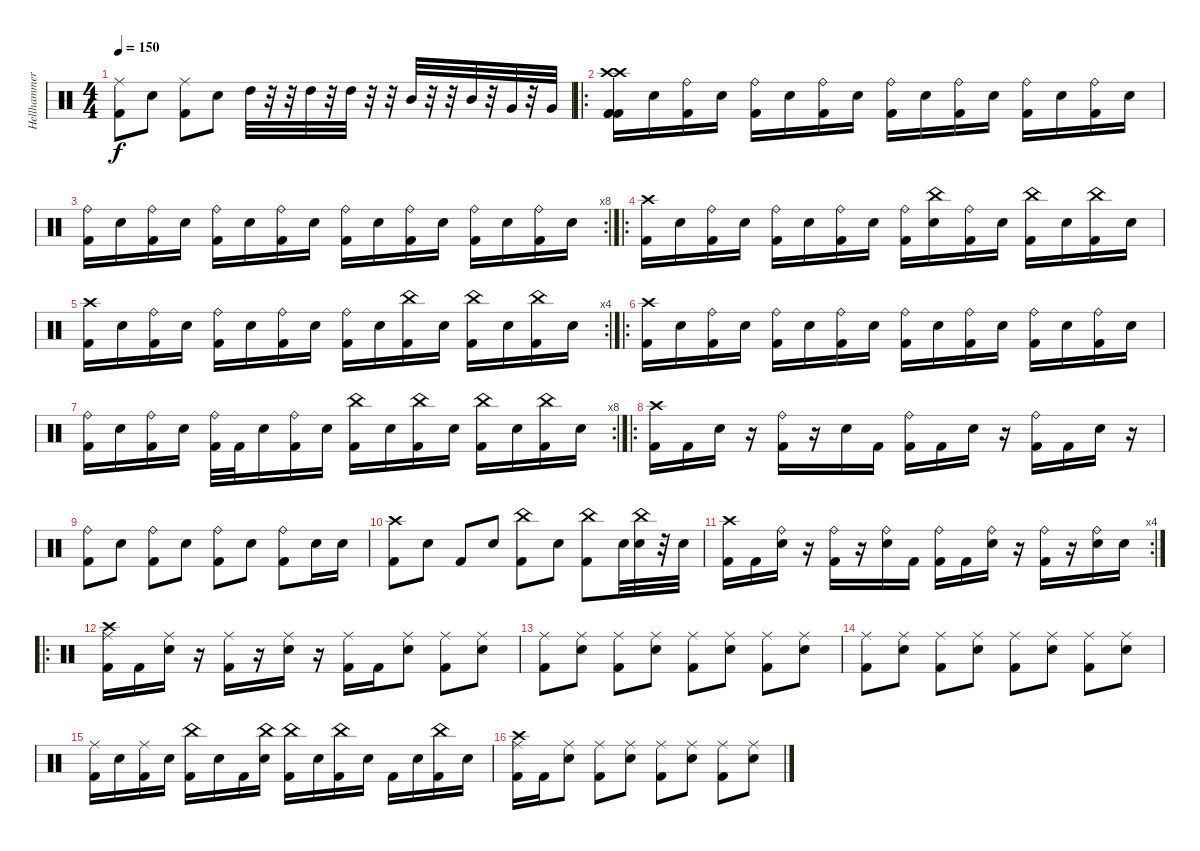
\track ("Hellhammer" "Hellhammer") {instrument percussion}
\staff {score}
\articulation defaults
\ts (4 4)
\tempo 150
\clef neutral
\ks c
("Ride (middle)" "Kick (hit) 2").8{dy f} "Electric Snare (hit)".8 ("Ride (middle)" "Kick (hit) 2").8 "Electric Snare (hit)".8 "High Tom (hit)".32 r.32 r.32 "High Tom (hit)".32 r.32 "High Tom (hit)".32 r.32 r.32 "Mid Tom (hit)".32 r.32 r.32 "Mid Tom (hit)".32 r.32 "Very Low Tom (hit)".32 r.32 "Very Low Tom (hit)".32 |
\ro
("Crash high (hit)" "Crash high (hit)" "Kick (hit) 2" "Kick (hit) 2" "Kick (hit) 2").16 "Electric Snare (hit)".16 ("Ride (bell)" "Kick (hit) 2").16 "Electric Snare (hit)".16 ("Ride (bell)" "Kick (hit) 2").16 "Electric Snare (hit)".16 ("Ride (bell)" "Kick (hit) 2").16 "Electric Snare (hit)".16 ("Ride (bell)" "Kick (hit) 2").16 "Electric Snare (hit)".16 ("Ride (bell)" "Kick (hit) 2").16 "Electric Snare (hit)".16 ("Ride (bell)" "Kick (hit) 2").16 "Electric Snare (hit)".16 ("Ride (bell)" "Kick (hit) 2").16 "Electric Snare (hit)".16 |
\rc 8
("Ride (bell)" "Kick (hit) 2").16 "Electric Snare (hit)".16 ("Ride (bell)" "Kick (hit) 2").16 "Electric Snare (hit)".16 ("Ride (bell)" "Kick (hit) 2").16 "Electric Snare (hit)".16 ("Ride (bell)" "Kick (hit) 2").16 "Electric Snare (hit)".16 ("Ride (bell)" "Kick (hit) 2").16 "Electric Snare (hit)".16 ("Ride (bell)" "Kick (hit) 2").16 "Electric Snare (hit)".16 ("Ride (bell)" "Kick (hit) 2").16 "Electric Snare (hit)".16 ("Ride (bell)" "Kick (hit) 2").16 "Electric Snare (hit)".16 |
\ro
("Crash high (hit)" "Kick (hit) 2").16 "Electric Snare (hit)".16 ("Ride (bell)" "Kick (hit) 2").16 "Electric Snare (hit)".16 ("Ride (bell)" "Kick (hit) 2").16 "Electric Snare (hit)".16 ("Ride (bell)" "Kick (hit) 2").16 "Electric Snare (hit)".16 ("Ride (bell)" "Kick (hit) 2").16 ("China (hit)" "Electric Snare (hit)").16 ("Ride (bell)" "Kick (hit) 2").16 "Electric Snare (hit)".16 ("China (hit)" "Kick (hit) 2").16 "Electric Snare (hit)".16 ("China (hit)" "Kick (hit) 2").16 "Electric Snare (hit)".16 |
\rc 4
("Crash high (hit)" "Kick (hit) 2").16 "Electric Snare (hit)".16 ("Ride (bell)" "Kick (hit) 2").16 "Electric Snare (hit)".16 ("Ride (bell)" "Kick (hit) 2").16 "Electric Snare (hit)".16 ("Ride (bell)" "Kick (hit) 2").16 "Electric Snare (hit)".16 ("Ride (bell)" "Kick (hit) 2").16 "Electric Snare (hit)".16 ("China (hit)" "Kick (hit) 2").16 "Electric Snare (hit)".16 ("China (hit)" "Kick (hit) 2").16 "Electric Snare (hit)".16 ("China (hit)" "Kick (hit) 2").16 "Electric Snare (hit)".16 |
\ro
("Crash high (hit)" "Kick (hit) 2").16 "Electric Snare (hit)".16 ("Ride (bell)" "Kick (hit) 2").16 "Electric Snare (hit)".16 ("Ride (bell)" "Kick (hit) 2").16 "Electric Snare (hit)".16 ("Ride (bell)" "Kick (hit) 2").16 "Electric Snare (hit)".16 ("Ride (bell)" "Kick (hit) 2").16 "Electric Snare (hit)".16 ("Ride (bell)" "Kick (hit) 2").16 "Electric Snare (hit)".16 ("Ride (bell)" "Kick (hit) 2").16 "Electric Snare (hit)".16 ("Ride (bell)" "Kick (hit) 2").16 "Electric Snare (hit)".16 |
\rc 8
("Ride (bell)" "Kick (hit) 2").16 "Electric Snare (hit)".16 ("Ride (bell)" "Kick (hit) 2").16 "Electric Snare (hit)".16 ("Ride (bell)" "Kick (hit) 2").32 "Kick (hit) 2".32 "Electric Snare (hit)".16 ("Ride (bell)" "Kick (hit) 2").16 "Electric Snare (hit)".16 ("China (hit)" "Kick (hit) 2").16 "Electric Snare (hit)".16 ("China (hit)" "Kick (hit) 2").16 "Electric Snare (hit)".16 ("China (hit)" "Kick (hit) 2").16 "Electric Snare (hit)".16 ("China (hit)" "Kick (hit) 2").16 "Electric Snare (hit)".16 |
\ro
("Crash high (hit)" "Kick (hit) 2").16 "Kick (hit) 2".16 "Electric Snare (hit)".16 r.16 ("Ride (bell)" "Kick (hit) 2").16 r.16 "Electric Snare (hit)".16 "Kick (hit) 2".16 ("Ride (bell)" "Kick (hit) 2").16 "Kick (hit) 2".16 "Electric Snare (hit)".16 r.16 ("Ride (bell)" "Kick (hit) 2").16 "Kick (hit) 2".16 "Electric Snare (hit)".16 r.16 |
("Ride (bell)" "Kick (hit) 2").8 "Electric Snare (hit)".8 ("Ride (bell)" "Kick (hit) 2").8 "Electric Snare (hit)".8 ("Ride (bell)" "Kick (hit) 2").8 "Electric Snare (hit)".8 ("Ride (bell)" "Kick (hit) 2").8 "Electric Snare (hit)".16 "Electric Snare (hit)".16 |
("Crash high (hit)" "Kick (hit) 2").8 "Electric Snare (hit)".8 "Kick (hit) 2".8 "Electric Snare (hit)".8 ("China (hit)" "Kick (hit) 2").8 "Electric Snare (hit)".8 ("China (hit)" "Kick (hit) 2").8 "Electric Snare (hit)".32 ("China (hit)" "Electric Snare (hit)").32 r.32 "Electric Snare (hit)".32 |
\rc 4
("Crash high (hit)" "Kick (hit) 2").16 "Kick (hit) 2".16 ("Ride (bell)" "Electric Snare (hit)").16 r.16 ("Ride (bell)" "Kick (hit) 2").16 r.16 ("Ride (bell)" "Electric Snare (hit)").16 "Kick (hit) 2".16 ("Ride (bell)" "Kick (hit) 2").16 "Kick (hit) 2".16 ("Ride (bell)" "Electric Snare (hit)").16 r.16 ("Ride (bell)" "Kick (hit) 2").16 r.16 ("Ride (bell)" "Electric Snare (hit)").16 "Electric Snare (hit)".16 |
\ro
("Ride (middle)" "Crash high (hit)" "Kick (hit) 2").16 "Kick (hit) 2".16 ("Ride (middle)" "Electric Snare (hit)").16 r.16 ("Ride (middle)" "Kick (hit) 2").16 r.16 ("Ride (middle)" "Electric Snare (hit)").16 r.16 ("Ride (middle)" "Kick (hit) 2").16 "Kick (hit) 2".16 ("Ride (middle)" "Electric Snare (hit)").8 ("Ride (middle)" "Kick (hit) 2").8 ("Ride (middle)" "Electric Snare (hit)").8 |
("Ride (middle)" "Kick (hit) 2").8 ("Ride (middle)" "Electric Snare (hit)").8 ("Ride (middle)" "Kick (hit) 2").8 ("Ride (middle)" "Electric Snare (hit)").8 ("Ride (middle)" "Kick (hit) 2").8 ("Ride (middle)" "Electric Snare (hit)").8 ("Ride (middle)" "Kick (hit) 2").8 ("Ride (middle)" "Electric Snare (hit)").8 |
("Ride (middle)" "Kick (hit) 2").8 ("Ride (middle)" "Electric Snare (hit)").8 ("Ride (middle)" "Kick (hit) 2").8 ("Ride (middle)" "Electric Snare (hit)").8 ("Ride (middle)" "Kick (hit) 2").8 ("Ride (middle)" "Electric Snare (hit)").8 ("Ride (middle)" "Kick (hit) 2").8 ("Ride (middle)" "Electric Snare (hit)").8 |
("Ride (middle)" "Kick (hit) 2").16 "Electric Snare (hit)".16 ("Ride (middle)" "Kick (hit) 2").16 "Electric Snare (hit)".16 ("China (hit)" "Kick (hit) 2").16 "Electric Snare (hit)".16 "Kick (hit) 2".16 ("China (hit)" "Electric Snare (hit)").16 ("China (hit)" "Kick (hit) 2").16 "Electric Snare (hit)".16 ("China (hit)" "Kick (hit) 2").16 "Electric Snare (hit)".16 "Kick (hit) 2".16 "Electric Snare (hit)".16 ("China (hit)" "Kick (hit) 2").16 "Electric Snare (hit)".16 |
("Crash high (hit)" "Ride (middle)" "Kick (hit) 2").16 "Kick (hit) 2".16 ("Ride (middle)" "Electric Snare (hit)").8 ("Ride (middle)" "Kick (hit) 2").8 ("Ride (middle)" "Electric Snare (hit)").8 ("Ride (middle)" "Kick (hit) 2").8 ("Ride (middle)" "Electric Snare (hit)").8 ("Ride (middle)" "Kick (hit) 2").8 ("Ride (middle)" "Electric Snare (hit)").8
